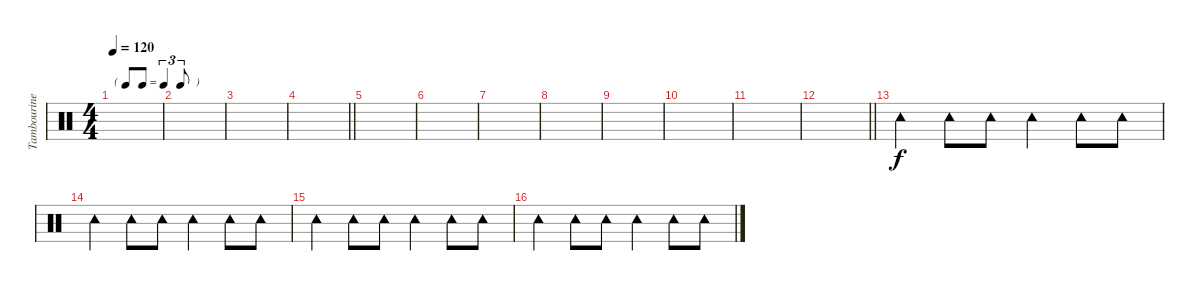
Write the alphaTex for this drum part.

\track ("Tambourine (George Harrison)" "Tambourine") {instrument percussion}
\staff {score}
\articulation defaults
\ts (4 4)
\tf triplet8th
\tempo 120
\clef neutral
\ks c
|
|
|
\barLineRight lightlight
|
|
|
|
|
|
|
|
\barLineRight lightlight
|
"Tambourine (hit)".4 "Tambourine (hit)".8 "Tambourine (hit)".8 "Tambourine (hit)".4 "Tambourine (hit)".8 "Tambourine (hit)".8 |
"Tambourine (hit)".4 "Tambourine (hit)".8 "Tambourine (hit)".8 "Tambourine (hit)".4 "Tambourine (hit)".8 "Tambourine (hit)".8 |
"Tambourine (hit)".4 "Tambourine (hit)".8 "Tambourine (hit)".8 "Tambourine (hit)".4 "Tambourine (hit)".8 "Tambourine (hit)".8 |
"Tambourine (hit)".4 "Tambourine (hit)".8 "Tambourine (hit)".8 "Tambourine (hit)".4 "Tambourine (hit)".8 "Tambourine (hit)".8
